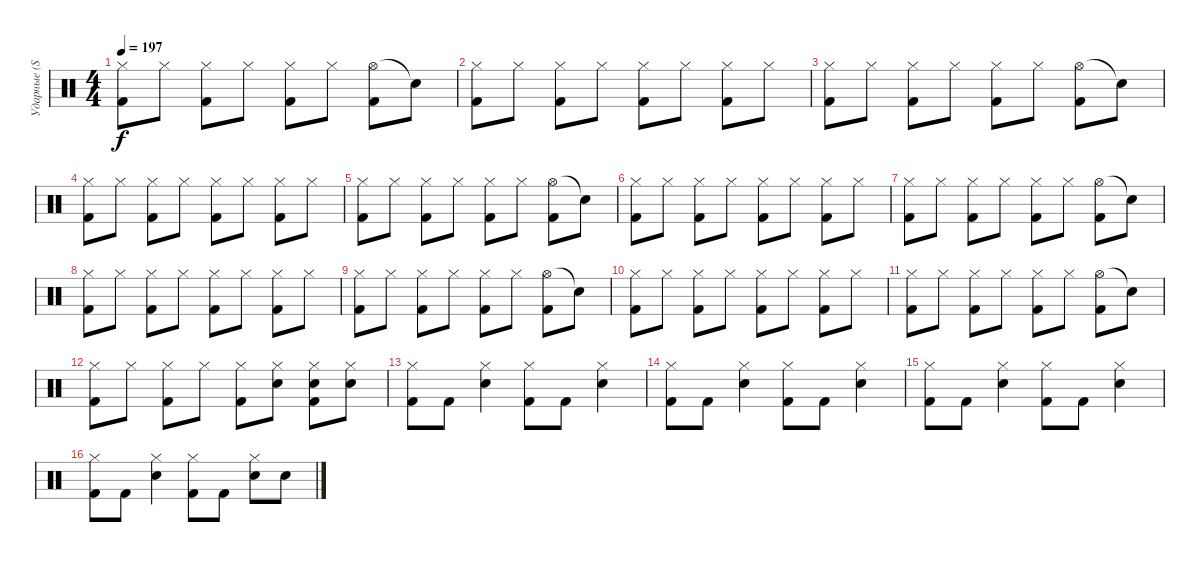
\track ("Ударные (Stevo32)" "Ударные (S") {instrument percussion}
\staff {score}
\articulation defaults
\ts (4 4)
\tempo 197
\clef neutral
\ks c
("Hi-Hat (closed)" "Kick (hit) 2").8{dy f} "Hi-Hat (closed)".8 ("Hi-Hat (closed)" "Kick (hit) 2").8 "Hi-Hat (closed)".8 ("Hi-Hat (closed)" "Kick (hit) 2").8 "Hi-Hat (closed)".8 ("Hi-Hat (open)" "Kick (hit) 2").8 "Snare (hit)"{t}.8 |
("Hi-Hat (closed)" "Kick (hit) 2").8 "Hi-Hat (closed)".8 ("Hi-Hat (closed)" "Kick (hit) 2").8 "Hi-Hat (closed)".8 ("Hi-Hat (closed)" "Kick (hit) 2").8 "Hi-Hat (closed)".8 ("Hi-Hat (closed)" "Kick (hit) 2").8 "Hi-Hat (closed)".8 |
("Hi-Hat (closed)" "Kick (hit) 2").8 "Hi-Hat (closed)".8 ("Hi-Hat (closed)" "Kick (hit) 2").8 "Hi-Hat (closed)".8 ("Hi-Hat (closed)" "Kick (hit) 2").8 "Hi-Hat (closed)".8 ("Hi-Hat (open)" "Kick (hit) 2").8 "Snare (hit)"{t}.8 |
("Hi-Hat (closed)" "Kick (hit) 2").8 "Hi-Hat (closed)".8 ("Hi-Hat (closed)" "Kick (hit) 2").8 "Hi-Hat (closed)".8 ("Hi-Hat (closed)" "Kick (hit) 2").8 "Hi-Hat (closed)".8 ("Hi-Hat (closed)" "Kick (hit) 2").8 "Hi-Hat (closed)".8 |
("Hi-Hat (closed)" "Kick (hit) 2").8 "Hi-Hat (closed)".8 ("Hi-Hat (closed)" "Kick (hit) 2").8 "Hi-Hat (closed)".8 ("Hi-Hat (closed)" "Kick (hit) 2").8 "Hi-Hat (closed)".8 ("Hi-Hat (open)" "Kick (hit) 2").8 "Snare (hit)"{t}.8 |
("Hi-Hat (closed)" "Kick (hit) 2").8 "Hi-Hat (closed)".8 ("Hi-Hat (closed)" "Kick (hit) 2").8 "Hi-Hat (closed)".8 ("Hi-Hat (closed)" "Kick (hit) 2").8 "Hi-Hat (closed)".8 ("Hi-Hat (closed)" "Kick (hit) 2").8 "Hi-Hat (closed)".8 |
("Hi-Hat (closed)" "Kick (hit) 2").8 "Hi-Hat (closed)".8 ("Hi-Hat (closed)" "Kick (hit) 2").8 "Hi-Hat (closed)".8 ("Hi-Hat (closed)" "Kick (hit) 2").8 "Hi-Hat (closed)".8 ("Hi-Hat (open)" "Kick (hit) 2").8 "Snare (hit)"{t}.8 |
("Hi-Hat (closed)" "Kick (hit) 2").8 "Hi-Hat (closed)".8 ("Hi-Hat (closed)" "Kick (hit) 2").8 "Hi-Hat (closed)".8 ("Hi-Hat (closed)" "Kick (hit) 2").8 "Hi-Hat (closed)".8 ("Hi-Hat (closed)" "Kick (hit) 2").8 "Hi-Hat (closed)".8 |
("Hi-Hat (closed)" "Kick (hit) 2").8 "Hi-Hat (closed)".8 ("Hi-Hat (closed)" "Kick (hit) 2").8 "Hi-Hat (closed)".8 ("Hi-Hat (closed)" "Kick (hit) 2").8 "Hi-Hat (closed)".8 ("Hi-Hat (open)" "Kick (hit) 2").8 "Snare (hit)"{t}.8 |
("Hi-Hat (closed)" "Kick (hit) 2").8 "Hi-Hat (closed)".8 ("Hi-Hat (closed)" "Kick (hit) 2").8 "Hi-Hat (closed)".8 ("Hi-Hat (closed)" "Kick (hit) 2").8 "Hi-Hat (closed)".8 ("Hi-Hat (closed)" "Kick (hit) 2").8 "Hi-Hat (closed)".8 |
("Hi-Hat (closed)" "Kick (hit) 2").8 "Hi-Hat (closed)".8 ("Hi-Hat (closed)" "Kick (hit) 2").8 "Hi-Hat (closed)".8 ("Hi-Hat (closed)" "Kick (hit) 2").8 "Hi-Hat (closed)".8 ("Hi-Hat (open)" "Kick (hit) 2").8 "Snare (hit)"{t}.8 |
("Hi-Hat (closed)" "Kick (hit) 2").8 "Hi-Hat (closed)".8 ("Hi-Hat (closed)" "Kick (hit) 2").8 "Hi-Hat (closed)".8 ("Hi-Hat (closed)" "Kick (hit) 2").8 ("Hi-Hat (closed)" "Snare (hit) 2").8 ("Hi-Hat (closed)" "Snare (hit) 2" "Kick (hit) 2").8 ("Hi-Hat (closed)" "Snare (hit) 2").8 |
("Hi-Hat (closed)" "Kick (hit) 2").8 "Kick (hit) 2".8 ("Hi-Hat (closed)" "Snare (hit) 2").4 ("Hi-Hat (closed)" "Kick (hit) 2").8 "Kick (hit) 2".8 ("Hi-Hat (closed)" "Snare (hit) 2").4 |
("Hi-Hat (closed)" "Kick (hit) 2").8 "Kick (hit) 2".8 ("Hi-Hat (closed)" "Snare (hit) 2").4 ("Hi-Hat (closed)" "Kick (hit) 2").8 "Kick (hit) 2".8 ("Hi-Hat (closed)" "Snare (hit) 2").4 |
("Hi-Hat (closed)" "Kick (hit) 2").8 "Kick (hit) 2".8 ("Hi-Hat (closed)" "Snare (hit) 2").4 ("Hi-Hat (closed)" "Kick (hit) 2").8 "Kick (hit) 2".8 ("Hi-Hat (closed)" "Snare (hit) 2").4 |
("Hi-Hat (closed)" "Kick (hit) 2").8 "Kick (hit) 2".8 ("Hi-Hat (closed)" "Snare (hit) 2").4 ("Hi-Hat (closed)" "Kick (hit) 2").8 "Kick (hit) 2".8 ("Hi-Hat (closed)" "Snare (hit) 2").8 "Snare (hit) 2".8
